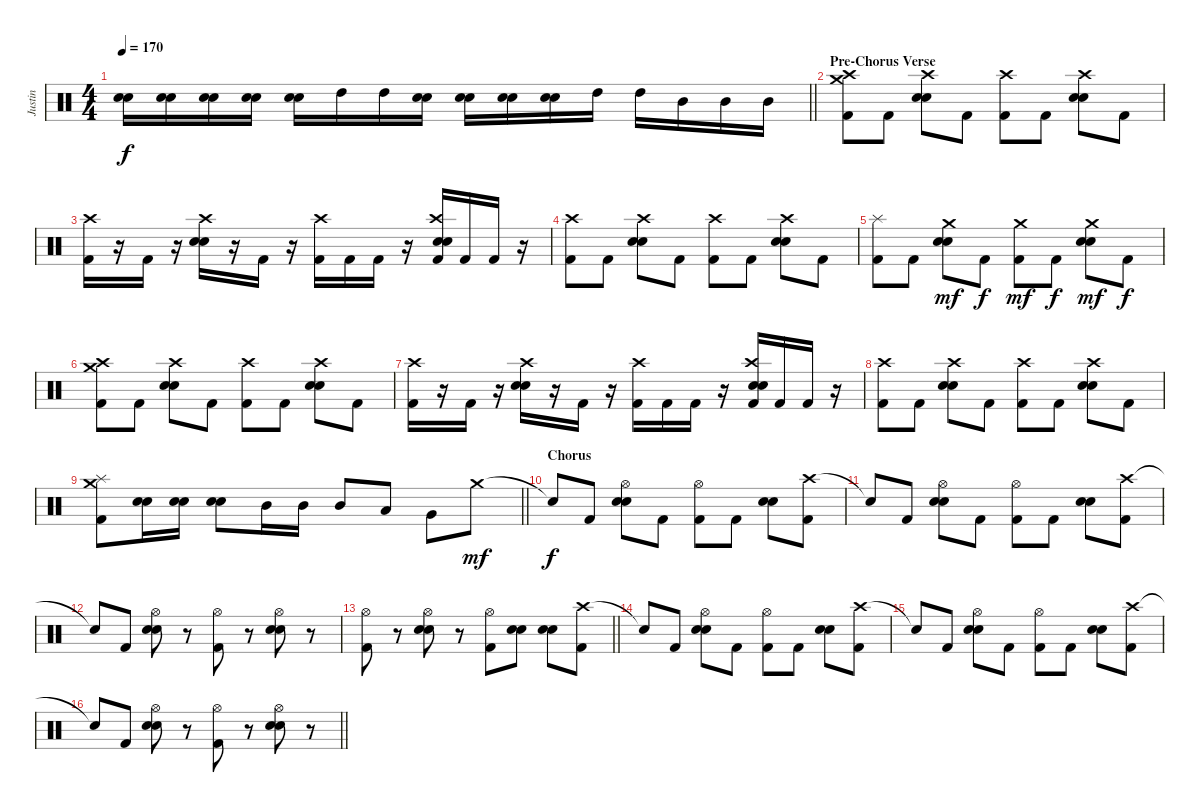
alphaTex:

\track ("Justin" "Justin") {instrument percussion}
\staff {score}
\articulation defaults
\ts (4 4)
\tempo 170
\clef neutral
\barLineRight lightlight
\ks c
("Electric Snare (hit)" "Snare (hit) 2").16{dy f} ("Electric Snare (hit)" "Snare (hit) 2").16 ("Electric Snare (hit)" "Snare (hit) 2").16 ("Electric Snare (hit)" "Snare (hit) 2").16 ("Electric Snare (hit)" "Snare (hit) 2").16 "High Tom (hit)".16 "High Tom (hit)".16 ("Electric Snare (hit)" "Snare (hit) 2").16 ("Electric Snare (hit)" "Snare (hit) 2").16 ("Electric Snare (hit)" "Snare (hit) 2").16 ("Electric Snare (hit)" "Snare (hit) 2").16 "High Tom (hit)".16 "High Tom (hit)".16 "Mid Tom (hit)".16 "Mid Tom (hit)".16 "Mid Tom (hit)".16 |
\section ("" "Pre-Chorus Verse")
("Crash high (hit)" "Crash medium (hit)" "Kick (hit) 2").8 "Kick (hit) 2".8 ("Crash high (hit)" "Electric Snare (hit)" "Snare (hit) 2").8 "Kick (hit) 2".8 ("Crash high (hit)" "Kick (hit) 2").8 "Kick (hit) 2".8 ("Crash high (hit)" "Electric Snare (hit)" "Snare (hit) 2").8 "Kick (hit) 2".8 |
("Crash high (hit)" "Kick (hit) 2").16 r.16 "Kick (hit) 2".16 r.16 ("Crash high (hit)" "Electric Snare (hit)" "Snare (hit) 2").16 r.16 "Kick (hit) 2".16 r.16 ("Crash high (hit)" "Kick (hit) 2").16 "Kick (hit) 2".16 "Kick (hit) 2".16 r.16 ("Crash high (hit)" "Electric Snare (hit)" "Snare (hit) 2" "Kick (hit) 2").16 "Kick (hit) 2".16 "Kick (hit) 2".16 r.16 |
("Crash high (hit)" "Kick (hit) 2").8 "Kick (hit) 2".8 ("Crash high (hit)" "Electric Snare (hit)" "Snare (hit) 2").8 "Kick (hit) 2".8 ("Crash high (hit)" "Kick (hit) 2").8 "Kick (hit) 2".8 ("Crash high (hit)" "Electric Snare (hit)" "Snare (hit) 2").8 "Kick (hit) 2".8 |
("Splash (hit)" "Kick (hit) 2").8 "Kick (hit) 2".8 ("Crash medium (hit)" "Electric Snare (hit)" "Snare (hit) 2").8{dy mf} "Kick (hit) 2".8{dy f} ("Crash medium (hit)" "Kick (hit) 2").8{dy mf} "Kick (hit) 2".8{dy f} ("Crash medium (hit)" "Electric Snare (hit)" "Snare (hit) 2").8{dy mf} "Kick (hit) 2".8{dy f} |
("Crash high (hit)" "Crash medium (hit)" "Kick (hit) 2").8 "Kick (hit) 2".8 ("Crash high (hit)" "Electric Snare (hit)" "Snare (hit) 2").8 "Kick (hit) 2".8 ("Crash high (hit)" "Kick (hit) 2").8 "Kick (hit) 2".8 ("Crash high (hit)" "Electric Snare (hit)" "Snare (hit) 2").8 "Kick (hit) 2".8 |
("Crash high (hit)" "Kick (hit) 2").16 r.16 "Kick (hit) 2".16 r.16 ("Crash high (hit)" "Electric Snare (hit)" "Snare (hit) 2").16 r.16 "Kick (hit) 2".16 r.16 ("Crash high (hit)" "Kick (hit) 2").16 "Kick (hit) 2".16 "Kick (hit) 2".16 r.16 ("Crash high (hit)" "Electric Snare (hit)" "Snare (hit) 2" "Kick (hit) 2").16 "Kick (hit) 2".16 "Kick (hit) 2".16 r.16 |
("Crash high (hit)" "Kick (hit) 2").8 "Kick (hit) 2".8 ("Crash high (hit)" "Electric Snare (hit)" "Snare (hit) 2").8 "Kick (hit) 2".8 ("Crash high (hit)" "Kick (hit) 2").8 "Kick (hit) 2".8 ("Crash high (hit)" "Electric Snare (hit)" "Snare (hit) 2").8 "Kick (hit) 2".8 |
\barLineRight lightlight
("Crash medium (hit)" "Splash (hit)" "Kick (hit) 2").8 ("Electric Snare (hit)" "Snare (hit) 2").16 ("Electric Snare (hit)" "Snare (hit) 2").16 ("Electric Snare (hit)" "Snare (hit) 2").8 "Mid Tom (hit)".16 "Mid Tom (hit)".16 "Mid Tom (hit)".8 "Low Tom (hit)".8 "Very Low Tom (hit)".8 "Crash medium (hit)".8{dy mf} |
\section ("" "Chorus")
"Snare (hit)"{t}.8{dy f} "Kick (hit) 2".8 ("Hi-Hat (open)" "Electric Snare (hit)" "Snare (hit) 2").8 "Kick (hit) 2".8 ("Hi-Hat (open)" "Kick (hit) 2").8 "Kick (hit) 2".8 ("Electric Snare (hit)" "Snare (hit) 2").8 ("Crash high (hit)" "Kick (hit) 2").8 |
"Snare (hit)"{t}.8 "Kick (hit) 2".8 ("Hi-Hat (open)" "Electric Snare (hit)" "Snare (hit) 2").8 "Kick (hit) 2".8 ("Hi-Hat (open)" "Kick (hit) 2").8 "Kick (hit) 2".8 ("Electric Snare (hit)" "Snare (hit) 2").8 ("Crash high (hit)" "Kick (hit) 2").8 |
"Snare (hit)"{t}.8 "Kick (hit) 2".8 ("Hi-Hat (open)" "Electric Snare (hit)" "Snare (hit) 2").8 r.8 ("Hi-Hat (open)" "Kick (hit) 2").8 r.8 ("Hi-Hat (open)" "Electric Snare (hit)" "Snare (hit) 2").8 r.8 |
\barLineRight lightlight
("Hi-Hat (open)" "Kick (hit) 2").8 r.8 ("Hi-Hat (open)" "Electric Snare (hit)" "Snare (hit) 2").8 r.8 ("Hi-Hat (open)" "Kick (hit) 2").8 ("Electric Snare (hit)" "Snare (hit) 2").8 ("Electric Snare (hit)" "Snare (hit) 2").8 ("Crash high (hit)" "Kick (hit) 2").8 |
"Snare (hit)"{t}.8 "Kick (hit) 2".8 ("Hi-Hat (open)" "Electric Snare (hit)" "Snare (hit) 2").8 "Kick (hit) 2".8 ("Hi-Hat (open)" "Kick (hit) 2").8 "Kick (hit) 2".8 ("Electric Snare (hit)" "Snare (hit) 2").8 ("Crash high (hit)" "Kick (hit) 2").8 |
"Snare (hit)"{t}.8 "Kick (hit) 2".8 ("Hi-Hat (open)" "Electric Snare (hit)" "Snare (hit) 2").8 "Kick (hit) 2".8 ("Hi-Hat (open)" "Kick (hit) 2").8 "Kick (hit) 2".8 ("Electric Snare (hit)" "Snare (hit) 2").8 ("Crash high (hit)" "Kick (hit) 2").8 |
\barLineRight lightlight "Snare (hit)"{t}.8 "Kick (hit) 2".8
("Hi-Hat (open)" "Electric Snare (hit)" "Snare (hit) 2").8 r.8 ("Hi-Hat (open)" "Kick (hit) 2").8 r.8 ("Hi-Hat (open)" "Electric Snare (hit)" "Snare (hit) 2").8 r.8
